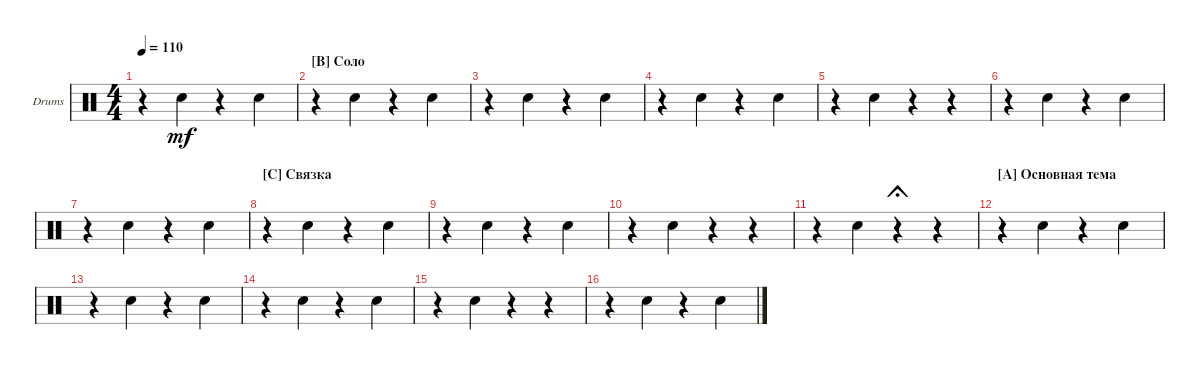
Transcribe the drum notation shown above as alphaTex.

\defaultSystemsLayout 4
\bracketExtendMode groupsimilarinstruments
\firstSystemTrackNameOrientation horizontal
\otherSystemsTrackNameOrientation horizontal
\track ("Drumkit" "Drums") {instrument percussion}
\staff {score}
\articulation defaults
\ts (4 4)
\tempo 110
\clef neutral
\ks c
r.4{dy mf} "Snare (hit) 2".4 r.4 "Snare (hit) 2".4 |
\section ("B" "Соло")
r.4 "Snare (hit) 2".4 r.4 "Snare (hit) 2".4 |
r.4 "Snare (hit) 2".4 r.4 "Snare (hit) 2".4 |
r.4 "Snare (hit) 2".4 r.4 "Snare (hit) 2".4 |
r.4 "Snare (hit) 2".4 r.4 r.4 |
r.4 "Snare (hit) 2".4 r.4 "Snare (hit) 2".4 |
r.4 "Snare (hit) 2".4 r.4 "Snare (hit) 2".4 |
\section ("C" "Связка")
r.4 "Snare (hit) 2".4 r.4 "Snare (hit) 2".4 |
r.4 "Snare (hit) 2".4 r.4 "Snare (hit) 2".4 |
r.4 "Snare (hit) 2".4 r.4 r.4 |
r.4 "Snare (hit) 2".4 r.4{fermata (short 0)} r.4 |
\section ("A" "Основная тема")
r.4 "Snare (hit) 2".4 r.4 "Snare (hit) 2".4 |
r.4 "Snare (hit) 2".4 r.4 "Snare (hit) 2".4 |
r.4 "Snare (hit) 2".4 r.4 "Snare (hit) 2".4 |
r.4 "Snare (hit) 2".4 r.4 r.4 |
r.4 "Snare (hit) 2".4 r.4 "Snare (hit) 2".4
